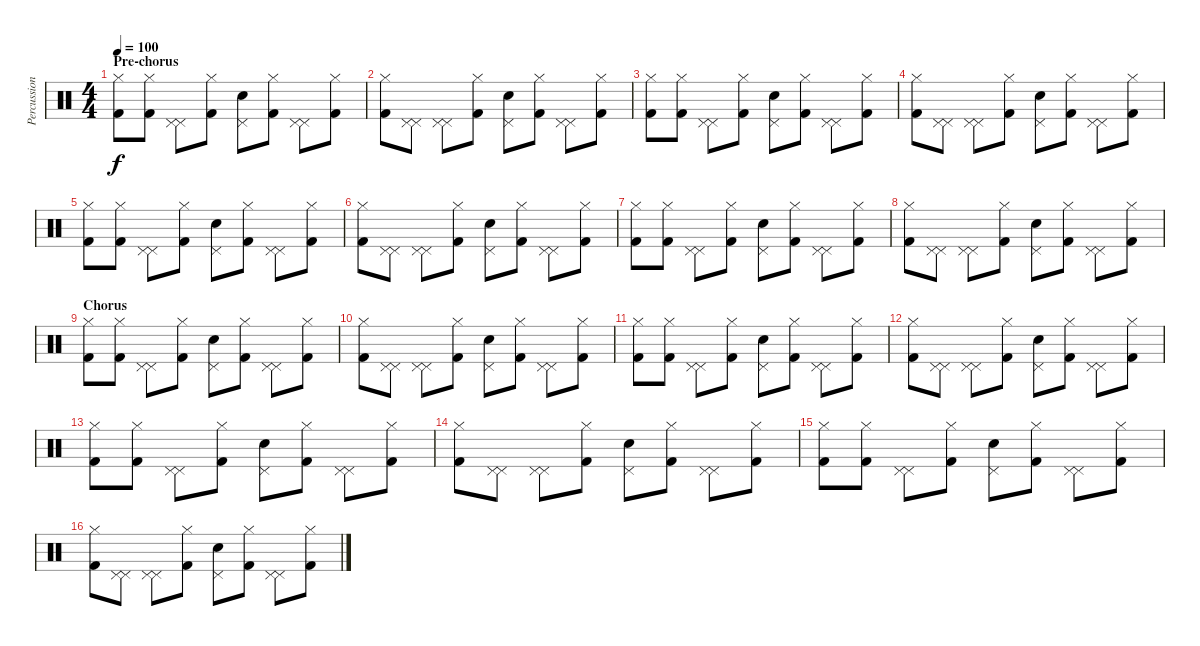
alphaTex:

\track ("Percussion" "Percussion") {instrument percussion}
\staff {score}
\articulation defaults
\ts (4 4)
\section ("" "Pre-chorus")
\tempo 100
\clef neutral
\ks c
("Hi-Hat (closed)" "Kick (hit) 2").8{dy f} ("Hi-Hat (closed)" "Kick (hit) 2").8 ("Pedal Hi-Hat (hit)" "Pedal Hi-Hat (hit)").8 ("Hi-Hat (closed)" "Kick (hit) 2").8 ("Snare (hit) 2" "Pedal Hi-Hat (hit)").8 ("Hi-Hat (closed)" "Kick (hit) 2").8 ("Pedal Hi-Hat (hit)" "Pedal Hi-Hat (hit)").8 ("Hi-Hat (closed)" "Kick (hit) 2").8 |
("Hi-Hat (closed)" "Kick (hit) 2").8 ("Pedal Hi-Hat (hit)" "Pedal Hi-Hat (hit)").8 ("Pedal Hi-Hat (hit)" "Pedal Hi-Hat (hit)").8 ("Hi-Hat (closed)" "Kick (hit) 2").8 ("Snare (hit) 2" "Pedal Hi-Hat (hit)").8 ("Hi-Hat (closed)" "Kick (hit) 2").8 ("Pedal Hi-Hat (hit)" "Pedal Hi-Hat (hit)").8 ("Hi-Hat (closed)" "Kick (hit) 2").8 |
("Hi-Hat (closed)" "Kick (hit) 2").8 ("Hi-Hat (closed)" "Kick (hit) 2").8 ("Pedal Hi-Hat (hit)" "Pedal Hi-Hat (hit)").8 ("Hi-Hat (closed)" "Kick (hit) 2").8 ("Snare (hit) 2" "Pedal Hi-Hat (hit)").8 ("Hi-Hat (closed)" "Kick (hit) 2").8 ("Pedal Hi-Hat (hit)" "Pedal Hi-Hat (hit)").8 ("Hi-Hat (closed)" "Kick (hit) 2").8 |
("Hi-Hat (closed)" "Kick (hit) 2").8 ("Pedal Hi-Hat (hit)" "Pedal Hi-Hat (hit)").8 ("Pedal Hi-Hat (hit)" "Pedal Hi-Hat (hit)").8 ("Hi-Hat (closed)" "Kick (hit) 2").8 ("Snare (hit) 2" "Pedal Hi-Hat (hit)").8 ("Hi-Hat (closed)" "Kick (hit) 2").8 ("Pedal Hi-Hat (hit)" "Pedal Hi-Hat (hit)").8 ("Hi-Hat (closed)" "Kick (hit) 2").8 |
("Hi-Hat (closed)" "Kick (hit) 2").8 ("Hi-Hat (closed)" "Kick (hit) 2").8 ("Pedal Hi-Hat (hit)" "Pedal Hi-Hat (hit)").8 ("Hi-Hat (closed)" "Kick (hit) 2").8 ("Snare (hit) 2" "Pedal Hi-Hat (hit)").8 ("Hi-Hat (closed)" "Kick (hit) 2").8 ("Pedal Hi-Hat (hit)" "Pedal Hi-Hat (hit)").8 ("Hi-Hat (closed)" "Kick (hit) 2").8 |
("Hi-Hat (closed)" "Kick (hit) 2").8 ("Pedal Hi-Hat (hit)" "Pedal Hi-Hat (hit)").8 ("Pedal Hi-Hat (hit)" "Pedal Hi-Hat (hit)").8 ("Hi-Hat (closed)" "Kick (hit) 2").8 ("Snare (hit) 2" "Pedal Hi-Hat (hit)").8 ("Hi-Hat (closed)" "Kick (hit) 2").8 ("Pedal Hi-Hat (hit)" "Pedal Hi-Hat (hit)").8 ("Hi-Hat (closed)" "Kick (hit) 2").8 |
("Hi-Hat (closed)" "Kick (hit) 2").8 ("Hi-Hat (closed)" "Kick (hit) 2").8 ("Pedal Hi-Hat (hit)" "Pedal Hi-Hat (hit)").8 ("Hi-Hat (closed)" "Kick (hit) 2").8 ("Snare (hit) 2" "Pedal Hi-Hat (hit)").8 ("Hi-Hat (closed)" "Kick (hit) 2").8 ("Pedal Hi-Hat (hit)" "Pedal Hi-Hat (hit)").8 ("Hi-Hat (closed)" "Kick (hit) 2").8 |
("Hi-Hat (closed)" "Kick (hit) 2").8 ("Pedal Hi-Hat (hit)" "Pedal Hi-Hat (hit)").8 ("Pedal Hi-Hat (hit)" "Pedal Hi-Hat (hit)").8 ("Hi-Hat (closed)" "Kick (hit) 2").8 ("Snare (hit) 2" "Pedal Hi-Hat (hit)").8 ("Hi-Hat (closed)" "Kick (hit) 2").8 ("Pedal Hi-Hat (hit)" "Pedal Hi-Hat (hit)").8 ("Hi-Hat (closed)" "Kick (hit) 2").8 |
\section ("" "Chorus")
("Hi-Hat (closed)" "Kick (hit) 2").8 ("Hi-Hat (closed)" "Kick (hit) 2").8 ("Pedal Hi-Hat (hit)" "Pedal Hi-Hat (hit)").8 ("Hi-Hat (closed)" "Kick (hit) 2").8 ("Snare (hit) 2" "Pedal Hi-Hat (hit)").8 ("Hi-Hat (closed)" "Kick (hit) 2").8 ("Pedal Hi-Hat (hit)" "Pedal Hi-Hat (hit)").8 ("Hi-Hat (closed)" "Kick (hit) 2").8 |
("Hi-Hat (closed)" "Kick (hit) 2").8 ("Pedal Hi-Hat (hit)" "Pedal Hi-Hat (hit)").8 ("Pedal Hi-Hat (hit)" "Pedal Hi-Hat (hit)").8 ("Hi-Hat (closed)" "Kick (hit) 2").8 ("Snare (hit) 2" "Pedal Hi-Hat (hit)").8 ("Hi-Hat (closed)" "Kick (hit) 2").8 ("Pedal Hi-Hat (hit)" "Pedal Hi-Hat (hit)").8 ("Hi-Hat (closed)" "Kick (hit) 2").8 |
("Hi-Hat (closed)" "Kick (hit) 2").8 ("Hi-Hat (closed)" "Kick (hit) 2").8 ("Pedal Hi-Hat (hit)" "Pedal Hi-Hat (hit)").8 ("Hi-Hat (closed)" "Kick (hit) 2").8 ("Snare (hit) 2" "Pedal Hi-Hat (hit)").8 ("Hi-Hat (closed)" "Kick (hit) 2").8 ("Pedal Hi-Hat (hit)" "Pedal Hi-Hat (hit)").8 ("Hi-Hat (closed)" "Kick (hit) 2").8 |
("Hi-Hat (closed)" "Kick (hit) 2").8 ("Pedal Hi-Hat (hit)" "Pedal Hi-Hat (hit)").8 ("Pedal Hi-Hat (hit)" "Pedal Hi-Hat (hit)").8 ("Hi-Hat (closed)" "Kick (hit) 2").8 ("Snare (hit) 2" "Pedal Hi-Hat (hit)").8 ("Hi-Hat (closed)" "Kick (hit) 2").8 ("Pedal Hi-Hat (hit)" "Pedal Hi-Hat (hit)").8 ("Hi-Hat (closed)" "Kick (hit) 2").8 |
("Hi-Hat (closed)" "Kick (hit) 2").8 ("Hi-Hat (closed)" "Kick (hit) 2").8 ("Pedal Hi-Hat (hit)" "Pedal Hi-Hat (hit)").8 ("Hi-Hat (closed)" "Kick (hit) 2").8 ("Snare (hit) 2" "Pedal Hi-Hat (hit)").8 ("Hi-Hat (closed)" "Kick (hit) 2").8 ("Pedal Hi-Hat (hit)" "Pedal Hi-Hat (hit)").8 ("Hi-Hat (closed)" "Kick (hit) 2").8 |
("Hi-Hat (closed)" "Kick (hit) 2").8 ("Pedal Hi-Hat (hit)" "Pedal Hi-Hat (hit)").8 ("Pedal Hi-Hat (hit)" "Pedal Hi-Hat (hit)").8 ("Hi-Hat (closed)" "Kick (hit) 2").8 ("Snare (hit) 2" "Pedal Hi-Hat (hit)").8 ("Hi-Hat (closed)" "Kick (hit) 2").8 ("Pedal Hi-Hat (hit)" "Pedal Hi-Hat (hit)").8 ("Hi-Hat (closed)" "Kick (hit) 2").8 |
("Hi-Hat (closed)" "Kick (hit) 2").8 ("Hi-Hat (closed)" "Kick (hit) 2").8 ("Pedal Hi-Hat (hit)" "Pedal Hi-Hat (hit)").8 ("Hi-Hat (closed)" "Kick (hit) 2").8 ("Snare (hit) 2" "Pedal Hi-Hat (hit)").8 ("Hi-Hat (closed)" "Kick (hit) 2").8 ("Pedal Hi-Hat (hit)" "Pedal Hi-Hat (hit)").8 ("Hi-Hat (closed)" "Kick (hit) 2").8 |
("Hi-Hat (closed)" "Kick (hit) 2").8 ("Pedal Hi-Hat (hit)" "Pedal Hi-Hat (hit)").8 ("Pedal Hi-Hat (hit)" "Pedal Hi-Hat (hit)").8 ("Hi-Hat (closed)" "Kick (hit) 2").8 ("Snare (hit) 2" "Pedal Hi-Hat (hit)").8 ("Hi-Hat (closed)" "Kick (hit) 2").8 ("Pedal Hi-Hat (hit)" "Pedal Hi-Hat (hit)").8 ("Hi-Hat (closed)" "Kick (hit) 2").8
